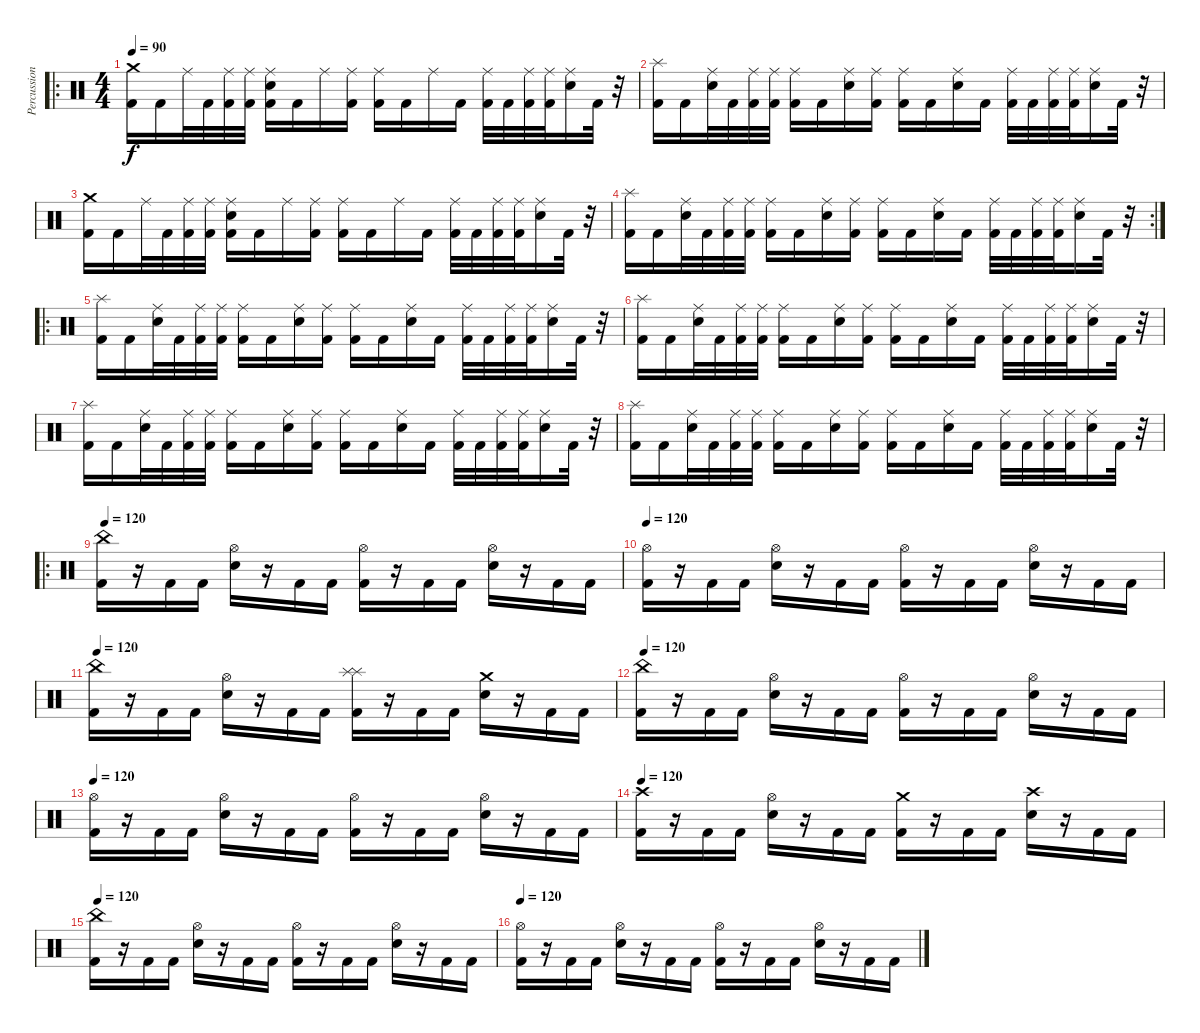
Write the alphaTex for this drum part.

\track ("Percussion" "Percussion") {instrument percussion}
\staff {score}
\articulation defaults
\ro
\ts (4 4)
\tempo 90
\clef neutral
\ks c
("Kick (hit) 2" "Crash medium (hit)").16{dy f} "Kick (hit) 2".16 "Ride (middle)".32 "Kick (hit) 2".32 ("Kick (hit) 2" "Ride (middle)").32 ("Kick (hit) 2" "Ride (middle)").32 ("Snare (hit) 2" "Kick (hit) 2" "Ride (middle)").16 "Kick (hit) 2".16 "Ride (middle)".16 ("Kick (hit) 2" "Ride (middle)").16 ("Kick (hit) 2" "Ride (middle)").16 "Kick (hit) 2".16 "Ride (middle)".16 "Kick (hit) 2".16 ("Kick (hit) 2" "Ride (middle)").32 "Kick (hit) 2".32 ("Kick (hit) 2" "Ride (middle)").32 ("Kick (hit) 2" "Ride (middle)").32 ("Snare (hit) 2" "Ride (middle)").16 "Kick (hit) 2".32 r.32 |
("Kick (hit) 2" "Splash (hit)").16 "Kick (hit) 2".16 ("Snare (hit) 2" "Ride (middle)").32 "Kick (hit) 2".32 ("Kick (hit) 2" "Ride (middle)").32 ("Kick (hit) 2" "Ride (middle)").32 ("Kick (hit) 2" "Ride (middle)").16 "Kick (hit) 2".16 ("Snare (hit) 2" "Ride (middle)").16 ("Kick (hit) 2" "Ride (middle)").16 ("Kick (hit) 2" "Ride (middle)").16 "Kick (hit) 2".16 ("Snare (hit) 2" "Ride (middle)").16 "Kick (hit) 2".16 ("Kick (hit) 2" "Ride (middle)").32 "Kick (hit) 2".32 ("Kick (hit) 2" "Ride (middle)").32 ("Kick (hit) 2" "Ride (middle)").32 ("Snare (hit) 2" "Ride (middle)").16 "Kick (hit) 2".32 r.32 |
("Kick (hit) 2" "Crash medium (hit)").16 "Kick (hit) 2".16 "Ride (middle)".32 "Kick (hit) 2".32 ("Kick (hit) 2" "Ride (middle)").32 ("Kick (hit) 2" "Ride (middle)").32 ("Snare (hit) 2" "Kick (hit) 2" "Ride (middle)").16 "Kick (hit) 2".16 "Ride (middle)".16 ("Kick (hit) 2" "Ride (middle)").16 ("Kick (hit) 2" "Ride (middle)").16 "Kick (hit) 2".16 "Ride (middle)".16 "Kick (hit) 2".16 ("Kick (hit) 2" "Ride (middle)").32 "Kick (hit) 2".32 ("Kick (hit) 2" "Ride (middle)").32 ("Kick (hit) 2" "Ride (middle)").32 ("Snare (hit) 2" "Ride (middle)").16 "Kick (hit) 2".32 r.32 |
\rc 2
("Kick (hit) 2" "Splash (hit)").16 "Kick (hit) 2".16 ("Snare (hit) 2" "Ride (middle)").32 "Kick (hit) 2".32 ("Kick (hit) 2" "Ride (middle)").32 ("Kick (hit) 2" "Ride (middle)").32 ("Kick (hit) 2" "Ride (middle)").16 "Kick (hit) 2".16 ("Snare (hit) 2" "Ride (middle)").16 ("Kick (hit) 2" "Ride (middle)").16 ("Kick (hit) 2" "Ride (middle)").16 "Kick (hit) 2".16 ("Snare (hit) 2" "Ride (middle)").16 "Kick (hit) 2".16 ("Kick (hit) 2" "Ride (middle)").32 "Kick (hit) 2".32 ("Kick (hit) 2" "Ride (middle)").32 ("Kick (hit) 2" "Ride (middle)").32 ("Snare (hit) 2" "Ride (middle)").16 "Kick (hit) 2".32 r.32 |
\ro
("Kick (hit) 2" "Splash (hit)").16 "Kick (hit) 2".16 ("Snare (hit) 2" "Ride (middle)").32 "Kick (hit) 2".32 ("Kick (hit) 2" "Ride (middle)").32 ("Kick (hit) 2" "Ride (middle)").32 ("Kick (hit) 2" "Ride (middle)").16 "Kick (hit) 2".16 ("Snare (hit) 2" "Ride (middle)").16 ("Kick (hit) 2" "Ride (middle)").16 ("Kick (hit) 2" "Ride (middle)").16 "Kick (hit) 2".16 ("Snare (hit) 2" "Ride (middle)").16 "Kick (hit) 2".16 ("Kick (hit) 2" "Ride (middle)").32 "Kick (hit) 2".32 ("Kick (hit) 2" "Ride (middle)").32 ("Kick (hit) 2" "Ride (middle)").32 ("Snare (hit) 2" "Ride (middle)").16 "Kick (hit) 2".32 r.32 |
("Kick (hit) 2" "Splash (hit)").16 "Kick (hit) 2".16 ("Snare (hit) 2" "Ride (middle)").32 "Kick (hit) 2".32 ("Kick (hit) 2" "Ride (middle)").32 ("Kick (hit) 2" "Ride (middle)").32 ("Kick (hit) 2" "Ride (middle)").16 "Kick (hit) 2".16 ("Snare (hit) 2" "Ride (middle)").16 ("Kick (hit) 2" "Ride (middle)").16 ("Kick (hit) 2" "Ride (middle)").16 "Kick (hit) 2".16 ("Snare (hit) 2" "Ride (middle)").16 "Kick (hit) 2".16 ("Kick (hit) 2" "Ride (middle)").32 "Kick (hit) 2".32 ("Kick (hit) 2" "Ride (middle)").32 ("Kick (hit) 2" "Ride (middle)").32 ("Snare (hit) 2" "Ride (middle)").16 "Kick (hit) 2".32 r.32 |
("Kick (hit) 2" "Splash (hit)").16 "Kick (hit) 2".16 ("Snare (hit) 2" "Ride (middle)").32 "Kick (hit) 2".32 ("Kick (hit) 2" "Ride (middle)").32 ("Kick (hit) 2" "Ride (middle)").32 ("Kick (hit) 2" "Ride (middle)").16 "Kick (hit) 2".16 ("Snare (hit) 2" "Ride (middle)").16 ("Kick (hit) 2" "Ride (middle)").16 ("Kick (hit) 2" "Ride (middle)").16 "Kick (hit) 2".16 ("Snare (hit) 2" "Ride (middle)").16 "Kick (hit) 2".16 ("Kick (hit) 2" "Ride (middle)").32 "Kick (hit) 2".32 ("Kick (hit) 2" "Ride (middle)").32 ("Kick (hit) 2" "Ride (middle)").32 ("Snare (hit) 2" "Ride (middle)").16 "Kick (hit) 2".32 r.32 |
("Kick (hit) 2" "Splash (hit)").16 "Kick (hit) 2".16 ("Snare (hit) 2" "Ride (middle)").32 "Kick (hit) 2".32 ("Kick (hit) 2" "Ride (middle)").32 ("Kick (hit) 2" "Ride (middle)").32 ("Kick (hit) 2" "Ride (middle)").16 "Kick (hit) 2".16 ("Snare (hit) 2" "Ride (middle)").16 ("Kick (hit) 2" "Ride (middle)").16 ("Kick (hit) 2" "Ride (middle)").16 "Kick (hit) 2".16 ("Snare (hit) 2" "Ride (middle)").16 "Kick (hit) 2".16 ("Kick (hit) 2" "Ride (middle)").32 "Kick (hit) 2".32 ("Kick (hit) 2" "Ride (middle)").32 ("Kick (hit) 2" "Ride (middle)").32 ("Snare (hit) 2" "Ride (middle)").16 "Kick (hit) 2".32 r.32 |
\ro
\tempo 120
("China (hit)" "Kick (hit) 2").16 r.16 "Kick (hit) 2".16 "Kick (hit) 2".16 ("Hi-Hat (open)" "Snare (hit) 2").16 r.16 "Kick (hit) 2".16 "Kick (hit) 2".16 ("Hi-Hat (open)" "Kick (hit) 2").16 r.16 "Kick (hit) 2".16 "Kick (hit) 2".16 ("Hi-Hat (open)" "Snare (hit) 2").16 r.16 "Kick (hit) 2".16 "Kick (hit) 2".16 |
\tempo 120
("Hi-Hat (open)" "Kick (hit) 2").16 r.16 "Kick (hit) 2".16 "Kick (hit) 2".16 ("Hi-Hat (open)" "Snare (hit) 2").16 r.16 "Kick (hit) 2".16 "Kick (hit) 2".16 ("Hi-Hat (open)" "Kick (hit) 2").16 r.16 "Kick (hit) 2".16 "Kick (hit) 2".16 ("Hi-Hat (open)" "Snare (hit) 2").16 r.16 "Kick (hit) 2".16 "Kick (hit) 2".16 |
\tempo 120
("China (hit)" "Kick (hit) 2").16 r.16 "Kick (hit) 2".16 "Kick (hit) 2".16 ("Hi-Hat (open)" "Snare (hit) 2").16 r.16 "Kick (hit) 2".16 "Kick (hit) 2".16 ("Splash (hit)" "Splash (hit)" "Kick (hit) 2").16 r.16 "Kick (hit) 2".16 "Kick (hit) 2".16 ("Crash medium (hit)" "Snare (hit) 2").16 r.16 "Kick (hit) 2".16 "Kick (hit) 2".16 |
\tempo 120
("China (hit)" "Kick (hit) 2").16 r.16 "Kick (hit) 2".16 "Kick (hit) 2".16 ("Hi-Hat (open)" "Snare (hit) 2").16 r.16 "Kick (hit) 2".16 "Kick (hit) 2".16 ("Hi-Hat (open)" "Kick (hit) 2").16 r.16 "Kick (hit) 2".16 "Kick (hit) 2".16 ("Hi-Hat (open)" "Snare (hit) 2").16 r.16 "Kick (hit) 2".16 "Kick (hit) 2".16 |
\tempo 120
("Hi-Hat (open)" "Kick (hit) 2").16 r.16 "Kick (hit) 2".16 "Kick (hit) 2".16 ("Hi-Hat (open)" "Snare (hit) 2").16 r.16 "Kick (hit) 2".16 "Kick (hit) 2".16 ("Hi-Hat (open)" "Kick (hit) 2").16 r.16 "Kick (hit) 2".16 "Kick (hit) 2".16 ("Hi-Hat (open)" "Snare (hit) 2").16 r.16 "Kick (hit) 2".16 "Kick (hit) 2".16 |
\tempo 120
("Crash high (hit)" "Kick (hit) 2").16 r.16 "Kick (hit) 2".16 "Kick (hit) 2".16 ("Hi-Hat (open)" "Snare (hit) 2").16 r.16 "Kick (hit) 2".16 "Kick (hit) 2".16 ("Crash medium (hit)" "Kick (hit) 2").16 r.16 "Kick (hit) 2".16 "Kick (hit) 2".16 ("Crash high (hit)" "Snare (hit) 2").16 r.16 "Kick (hit) 2".16 "Kick (hit) 2".16 |
\tempo 120
("China (hit)" "Kick (hit) 2").16 r.16 "Kick (hit) 2".16 "Kick (hit) 2".16 ("Hi-Hat (open)" "Snare (hit) 2").16 r.16 "Kick (hit) 2".16 "Kick (hit) 2".16 ("Hi-Hat (open)" "Kick (hit) 2").16 r.16 "Kick (hit) 2".16 "Kick (hit) 2".16 ("Hi-Hat (open)" "Snare (hit) 2").16 r.16 "Kick (hit) 2".16 "Kick (hit) 2".16 |
\tempo 120
("Hi-Hat (open)" "Kick (hit) 2").16 r.16 "Kick (hit) 2".16 "Kick (hit) 2".16 ("Hi-Hat (open)" "Snare (hit) 2").16 r.16 "Kick (hit) 2".16 "Kick (hit) 2".16 ("Hi-Hat (open)" "Kick (hit) 2").16 r.16 "Kick (hit) 2".16 "Kick (hit) 2".16 ("Hi-Hat (open)" "Snare (hit) 2").16 r.16 "Kick (hit) 2".16 "Kick (hit) 2".16
